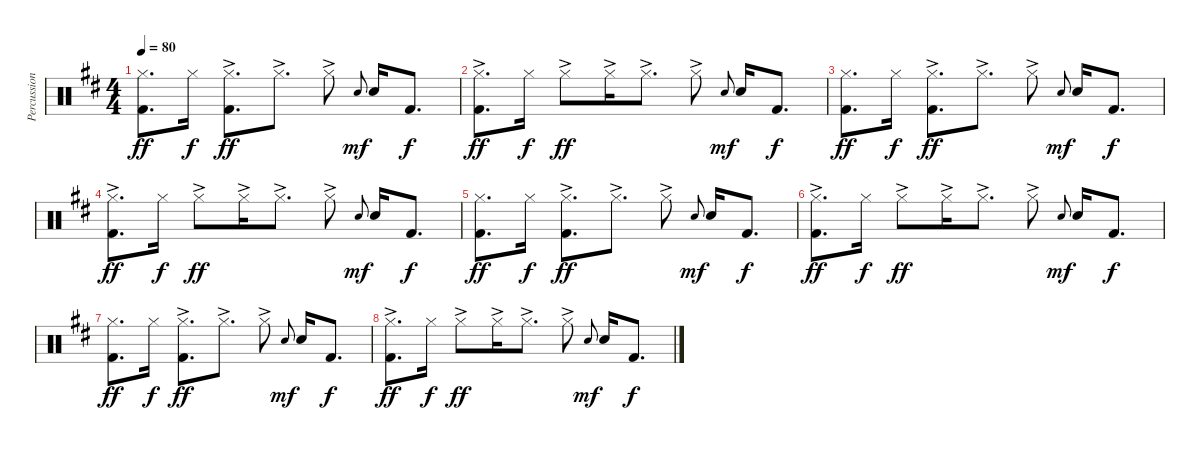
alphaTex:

\track ("Percussion" "Percussion") {instrument percussion}
\staff {score}
\articulation defaults
\ts (4 4)
\tempo 80
\clef neutral
\ks bminor
("Hi-Hat (closed)" "Kick (hit) 2").8{d dy ff} "Hi-Hat (closed)".16{dy f} ("Hi-Hat (closed)"{ac} "Kick (hit) 2").8{d dy ff} "Hi-Hat (closed)"{ac}.8{d} "Hi-Hat (closed)"{ac}.8 "Electric Snare (hit)".8{gr onbeat dy mf} "Electric Snare (hit)".16 "Kick (hit) 2".8{d dy f} |
("Hi-Hat (closed)"{ac} "Kick (hit) 2").8{d dy ff} "Hi-Hat (closed)".16{dy f} "Hi-Hat (closed)"{ac}.8{dy ff} "Hi-Hat (closed)"{ac}.16 "Hi-Hat (closed)"{ac}.8{d} "Hi-Hat (closed)"{ac}.8 "Electric Snare (hit)".8{gr onbeat dy mf} "Electric Snare (hit)".16 "Kick (hit) 2".8{d dy f} |
("Hi-Hat (closed)" "Kick (hit) 2").8{d dy ff} "Hi-Hat (closed)".16{dy f} ("Hi-Hat (closed)"{ac} "Kick (hit) 2").8{d dy ff} "Hi-Hat (closed)"{ac}.8{d} "Hi-Hat (closed)"{ac}.8 "Electric Snare (hit)".8{gr onbeat dy mf} "Electric Snare (hit)".16 "Kick (hit) 2".8{d dy f} |
("Hi-Hat (closed)"{ac} "Kick (hit) 2").8{d dy ff} "Hi-Hat (closed)".16{dy f} "Hi-Hat (closed)"{ac}.8{dy ff} "Hi-Hat (closed)"{ac}.16 "Hi-Hat (closed)"{ac}.8{d} "Hi-Hat (closed)"{ac}.8 "Electric Snare (hit)".8{gr onbeat dy mf} "Electric Snare (hit)".16 "Kick (hit) 2".8{d dy f} |
("Hi-Hat (closed)" "Kick (hit) 2").8{d dy ff} "Hi-Hat (closed)".16{dy f} ("Hi-Hat (closed)"{ac} "Kick (hit) 2").8{d dy ff} "Hi-Hat (closed)"{ac}.8{d} "Hi-Hat (closed)"{ac}.8 "Electric Snare (hit)".8{gr onbeat dy mf} "Electric Snare (hit)".16 "Kick (hit) 2".8{d dy f} |
("Hi-Hat (closed)"{ac} "Kick (hit) 2").8{d dy ff} "Hi-Hat (closed)".16{dy f} "Hi-Hat (closed)"{ac}.8{dy ff} "Hi-Hat (closed)"{ac}.16 "Hi-Hat (closed)"{ac}.8{d} "Hi-Hat (closed)"{ac}.8 "Electric Snare (hit)".8{gr onbeat dy mf} "Electric Snare (hit)".16 "Kick (hit) 2".8{d dy f} |
("Hi-Hat (closed)" "Kick (hit) 2").8{d dy ff} "Hi-Hat (closed)".16{dy f} ("Hi-Hat (closed)"{ac} "Kick (hit) 2").8{d dy ff} "Hi-Hat (closed)"{ac}.8{d} "Hi-Hat (closed)"{ac}.8 "Electric Snare (hit)".8{gr onbeat dy mf} "Electric Snare (hit)".16 "Kick (hit) 2".8{d dy f} |
("Hi-Hat (closed)"{ac} "Kick (hit) 2").8{d dy ff} "Hi-Hat (closed)".16{dy f} "Hi-Hat (closed)"{ac}.8{dy ff} "Hi-Hat (closed)"{ac}.16 "Hi-Hat (closed)"{ac}.8{d} "Hi-Hat (closed)"{ac}.8 "Electric Snare (hit)".8{gr onbeat dy mf} "Electric Snare (hit)".16 "Kick (hit) 2".8{d dy f}
